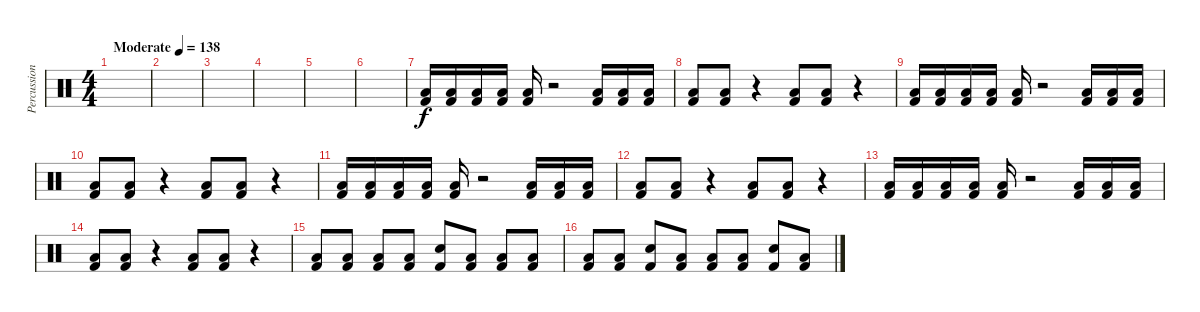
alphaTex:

\track ("Percussion" "Percussion") {instrument percussion}
\staff {score}
\articulation defaults
\ts (4 4)
\tempo (138 "Moderate")
\clef neutral
\ks c
|
|
|
|
|
|
("Low Tom (hit)" "Kick (hit) 2").16 ("Low Tom (hit)" "Kick (hit) 2").16 ("Low Tom (hit)" "Kick (hit) 2").16 ("Low Tom (hit)" "Kick (hit) 2").16 ("Low Tom (hit)" "Kick (hit) 2").16 r.2 ("Low Tom (hit)" "Kick (hit) 2").16 ("Low Tom (hit)" "Kick (hit) 2").16 ("Low Tom (hit)" "Kick (hit) 2").16 |
("Low Tom (hit)" "Kick (hit) 2").8 ("Low Tom (hit)" "Kick (hit) 2").8 r.4 ("Low Tom (hit)" "Kick (hit) 2").8 ("Low Tom (hit)" "Kick (hit) 2").8 r.4 |
("Low Tom (hit)" "Kick (hit) 2").16 ("Low Tom (hit)" "Kick (hit) 2").16 ("Low Tom (hit)" "Kick (hit) 2").16 ("Low Tom (hit)" "Kick (hit) 2").16 ("Low Tom (hit)" "Kick (hit) 2").16 r.2 ("Low Tom (hit)" "Kick (hit) 2").16 ("Low Tom (hit)" "Kick (hit) 2").16 ("Low Tom (hit)" "Kick (hit) 2").16 |
("Low Tom (hit)" "Kick (hit) 2").8 ("Low Tom (hit)" "Kick (hit) 2").8 r.4 ("Low Tom (hit)" "Kick (hit) 2").8 ("Low Tom (hit)" "Kick (hit) 2").8 r.4 |
("Low Tom (hit)" "Kick (hit) 2").16 ("Low Tom (hit)" "Kick (hit) 2").16 ("Low Tom (hit)" "Kick (hit) 2").16 ("Low Tom (hit)" "Kick (hit) 2").16 ("Low Tom (hit)" "Kick (hit) 2").16 r.2 ("Low Tom (hit)" "Kick (hit) 2").16 ("Low Tom (hit)" "Kick (hit) 2").16 ("Low Tom (hit)" "Kick (hit) 2").16 |
("Low Tom (hit)" "Kick (hit) 2").8 ("Low Tom (hit)" "Kick (hit) 2").8 r.4 ("Low Tom (hit)" "Kick (hit) 2").8 ("Low Tom (hit)" "Kick (hit) 2").8 r.4 |
("Low Tom (hit)" "Kick (hit) 2").16 ("Low Tom (hit)" "Kick (hit) 2").16 ("Low Tom (hit)" "Kick (hit) 2").16 ("Low Tom (hit)" "Kick (hit) 2").16 ("Low Tom (hit)" "Kick (hit) 2").16 r.2 ("Low Tom (hit)" "Kick (hit) 2").16 ("Low Tom (hit)" "Kick (hit) 2").16 ("Low Tom (hit)" "Kick (hit) 2").16 |
("Low Tom (hit)" "Kick (hit) 2").8 ("Low Tom (hit)" "Kick (hit) 2").8 r.4 ("Low Tom (hit)" "Kick (hit) 2").8 ("Low Tom (hit)" "Kick (hit) 2").8 r.4 |
("Low Tom (hit)" "Kick (hit) 2").8 ("Low Tom (hit)" "Kick (hit) 2").8 ("Low Tom (hit)" "Kick (hit) 2").8 ("Low Tom (hit)" "Kick (hit) 2").8 ("Electric Snare (hit)" "Kick (hit) 2").8 ("Low Tom (hit)" "Kick (hit) 2").8 ("Low Tom (hit)" "Kick (hit) 2").8 ("Low Tom (hit)" "Kick (hit) 2").8 |
("Low Tom (hit)" "Kick (hit) 2").8 ("Low Tom (hit)" "Kick (hit) 2").8 ("Electric Snare (hit)" "Kick (hit) 2").8 ("Low Tom (hit)" "Kick (hit) 2").8 ("Low Tom (hit)" "Kick (hit) 2").8 ("Low Tom (hit)" "Kick (hit) 2").8 ("Electric Snare (hit)" "Kick (hit) 2").8 ("Low Tom (hit)" "Kick (hit) 2").8
